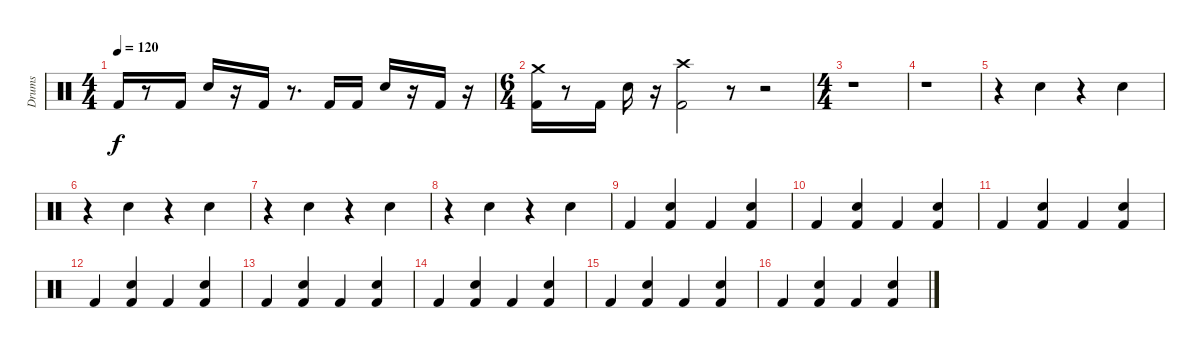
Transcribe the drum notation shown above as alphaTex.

\track ("Drums" "Drums") {instrument percussion}
\staff {score}
\articulation defaults
\ts (4 4)
\tempo 120
\clef neutral
\ks c "Kick (hit) 2".16{dy f}
r.8 "Kick (hit) 2".16 "Snare (hit) 2".16 r.16 "Kick (hit) 2".16 r.8{d} "Kick (hit) 2".16 "Kick (hit) 2".16 "Snare (hit) 2".16 r.16 "Kick (hit) 2".16 r.16 |
\ts (6 4)
("Kick (hit) 2" "Crash medium (hit)").16 r.8 "Kick (hit) 2".16 "Snare (hit) 2".16 r.16 ("Kick (hit) 2" "Crash high (hit)").2 r.8 r.2 |
\ts (4 4)
r.1 |
r.1 |
r.4 "Hand Clap (hit)".4 r.4 "Hand Clap (hit)".4 |
r.4 "Hand Clap (hit)".4 r.4 "Hand Clap (hit)".4 |
r.4 "Hand Clap (hit)".4 r.4 "Hand Clap (hit)".4 |
r.4 "Hand Clap (hit)".4 r.4 "Hand Clap (hit)".4 |
"Kick (hit) 2".4 ("Kick (hit) 2" "Hand Clap (hit)").4 "Kick (hit) 2".4 ("Kick (hit) 2" "Hand Clap (hit)").4 |
"Kick (hit) 2".4 ("Kick (hit) 2" "Hand Clap (hit)").4 "Kick (hit) 2".4 ("Kick (hit) 2" "Hand Clap (hit)").4 |
"Kick (hit) 2".4 ("Kick (hit) 2" "Hand Clap (hit)").4 "Kick (hit) 2".4 ("Kick (hit) 2" "Hand Clap (hit)").4 |
"Kick (hit) 2".4 ("Kick (hit) 2" "Hand Clap (hit)").4 "Kick (hit) 2".4 ("Kick (hit) 2" "Hand Clap (hit)").4 |
"Kick (hit) 2".4 ("Kick (hit) 2" "Hand Clap (hit)").4 "Kick (hit) 2".4 ("Kick (hit) 2" "Hand Clap (hit)").4 |
"Kick (hit) 2".4 ("Kick (hit) 2" "Hand Clap (hit)").4 "Kick (hit) 2".4 ("Kick (hit) 2" "Hand Clap (hit)").4 |
"Kick (hit) 2".4 ("Kick (hit) 2" "Hand Clap (hit)").4 "Kick (hit) 2".4 ("Kick (hit) 2" "Hand Clap (hit)").4 |
"Kick (hit) 2".4 ("Kick (hit) 2" "Hand Clap (hit)").4 "Kick (hit) 2".4 ("Kick (hit) 2" "Hand Clap (hit)").4
